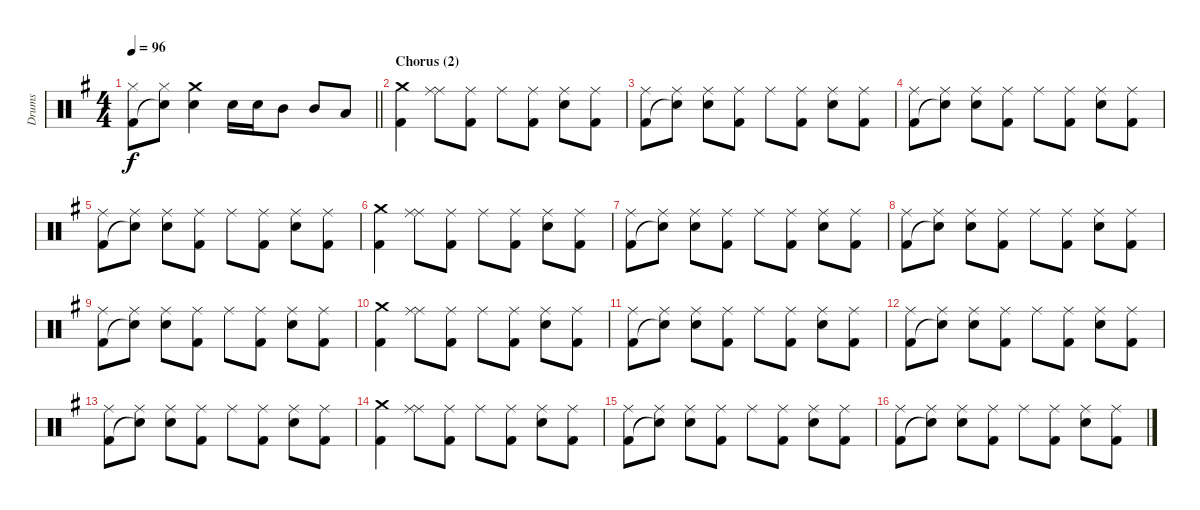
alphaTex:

\track ("Drums" "Drums") {instrument percussion}
\staff {score}
\articulation defaults
\ts (4 4)
\tempo 96
\clef neutral
\barLineRight lightlight
\ks eminor
("Hi-Hat (closed)" "Kick (hit) 2").8{dy f} ("Hi-Hat (closed)" "Snare (hit)"{t}).8 ("Crash medium (hit)" "Electric Snare (hit)").4 "Electric Snare (hit)".16 "Electric Snare (hit)".16 "Mid Tom (hit)".8 "Mid Tom (hit)".8 "Low Floor Tom (hit)".8 |
\section ("" "Chorus (2)")
("Crash medium (hit)" "Kick (hit) 2").4 ("Ride (middle)" "Ride (middle)").8 ("Ride (middle)" "Kick (hit) 2").8 "Ride (middle)".8 ("Ride (middle)" "Kick (hit) 2").8 ("Ride (middle)" "Electric Snare (hit)").8 ("Ride (middle)" "Kick (hit) 2").8 |
("Ride (middle)" "Kick (hit) 2").8 ("Ride (middle)" "Snare (hit)"{t}).8 ("Ride (middle)" "Electric Snare (hit)").8 ("Ride (middle)" "Kick (hit) 2").8 "Ride (middle)".8 ("Ride (middle)" "Kick (hit) 2").8 ("Ride (middle)" "Electric Snare (hit)").8 ("Ride (middle)" "Kick (hit) 2").8 |
("Ride (middle)" "Kick (hit) 2").8 ("Ride (middle)" "Snare (hit)"{t}).8 ("Ride (middle)" "Electric Snare (hit)").8 ("Ride (middle)" "Kick (hit) 2").8 "Ride (middle)".8 ("Ride (middle)" "Kick (hit) 2").8 ("Ride (middle)" "Electric Snare (hit)").8 ("Ride (middle)" "Kick (hit) 2").8 |
("Ride (middle)" "Kick (hit) 2").8 ("Ride (middle)" "Snare (hit)"{t}).8 ("Ride (middle)" "Electric Snare (hit)").8 ("Ride (middle)" "Kick (hit) 2").8 "Ride (middle)".8 ("Ride (middle)" "Kick (hit) 2").8 ("Ride (middle)" "Electric Snare (hit)").8 ("Ride (middle)" "Kick (hit) 2").8 |
("Crash medium (hit)" "Kick (hit) 2").4 ("Ride (middle)" "Ride (middle)").8 ("Ride (middle)" "Kick (hit) 2").8 "Ride (middle)".8 ("Ride (middle)" "Kick (hit) 2").8 ("Ride (middle)" "Electric Snare (hit)").8 ("Ride (middle)" "Kick (hit) 2").8 |
("Ride (middle)" "Kick (hit) 2").8 ("Ride (middle)" "Snare (hit)"{t}).8 ("Ride (middle)" "Electric Snare (hit)").8 ("Ride (middle)" "Kick (hit) 2").8 "Ride (middle)".8 ("Ride (middle)" "Kick (hit) 2").8 ("Ride (middle)" "Electric Snare (hit)").8 ("Ride (middle)" "Kick (hit) 2").8 |
("Ride (middle)" "Kick (hit) 2").8 ("Ride (middle)" "Snare (hit)"{t}).8 ("Ride (middle)" "Electric Snare (hit)").8 ("Ride (middle)" "Kick (hit) 2").8 "Ride (middle)".8 ("Ride (middle)" "Kick (hit) 2").8 ("Ride (middle)" "Electric Snare (hit)").8 ("Ride (middle)" "Kick (hit) 2").8 |
("Ride (middle)" "Kick (hit) 2").8 ("Ride (middle)" "Snare (hit)"{t}).8 ("Ride (middle)" "Electric Snare (hit)").8 ("Ride (middle)" "Kick (hit) 2").8 "Ride (middle)".8 ("Ride (middle)" "Kick (hit) 2").8 ("Ride (middle)" "Electric Snare (hit)").8 ("Ride (middle)" "Kick (hit) 2").8 |
("Crash medium (hit)" "Kick (hit) 2").4 ("Ride (middle)" "Ride (middle)").8 ("Ride (middle)" "Kick (hit) 2").8 "Ride (middle)".8 ("Ride (middle)" "Kick (hit) 2").8 ("Ride (middle)" "Electric Snare (hit)").8 ("Ride (middle)" "Kick (hit) 2").8 |
("Ride (middle)" "Kick (hit) 2").8 ("Ride (middle)" "Snare (hit)"{t}).8 ("Ride (middle)" "Electric Snare (hit)").8 ("Ride (middle)" "Kick (hit) 2").8 "Ride (middle)".8 ("Ride (middle)" "Kick (hit) 2").8 ("Ride (middle)" "Electric Snare (hit)").8 ("Ride (middle)" "Kick (hit) 2").8 |
("Ride (middle)" "Kick (hit) 2").8 ("Ride (middle)" "Snare (hit)"{t}).8 ("Ride (middle)" "Electric Snare (hit)").8 ("Ride (middle)" "Kick (hit) 2").8 "Ride (middle)".8 ("Ride (middle)" "Kick (hit) 2").8 ("Ride (middle)" "Electric Snare (hit)").8 ("Ride (middle)" "Kick (hit) 2").8 |
("Ride (middle)" "Kick (hit) 2").8 ("Ride (middle)" "Snare (hit)"{t}).8 ("Ride (middle)" "Electric Snare (hit)").8 ("Ride (middle)" "Kick (hit) 2").8 "Ride (middle)".8 ("Ride (middle)" "Kick (hit) 2").8 ("Ride (middle)" "Electric Snare (hit)").8 ("Ride (middle)" "Kick (hit) 2").8 |
("Crash medium (hit)" "Kick (hit) 2").4 ("Ride (middle)" "Ride (middle)").8 ("Ride (middle)" "Kick (hit) 2").8 "Ride (middle)".8 ("Ride (middle)" "Kick (hit) 2").8 ("Ride (middle)" "Electric Snare (hit)").8 ("Ride (middle)" "Kick (hit) 2").8 |
("Ride (middle)" "Kick (hit) 2").8 ("Ride (middle)" "Snare (hit)"{t}).8 ("Ride (middle)" "Electric Snare (hit)").8 ("Ride (middle)" "Kick (hit) 2").8 "Ride (middle)".8 ("Ride (middle)" "Kick (hit) 2").8 ("Ride (middle)" "Electric Snare (hit)").8 ("Ride (middle)" "Kick (hit) 2").8 |
("Ride (middle)" "Kick (hit) 2").8 ("Ride (middle)" "Snare (hit)"{t}).8 ("Ride (middle)" "Electric Snare (hit)").8 ("Ride (middle)" "Kick (hit) 2").8 "Ride (middle)".8 ("Ride (middle)" "Kick (hit) 2").8 ("Ride (middle)" "Electric Snare (hit)").8 ("Ride (middle)" "Kick (hit) 2").8
